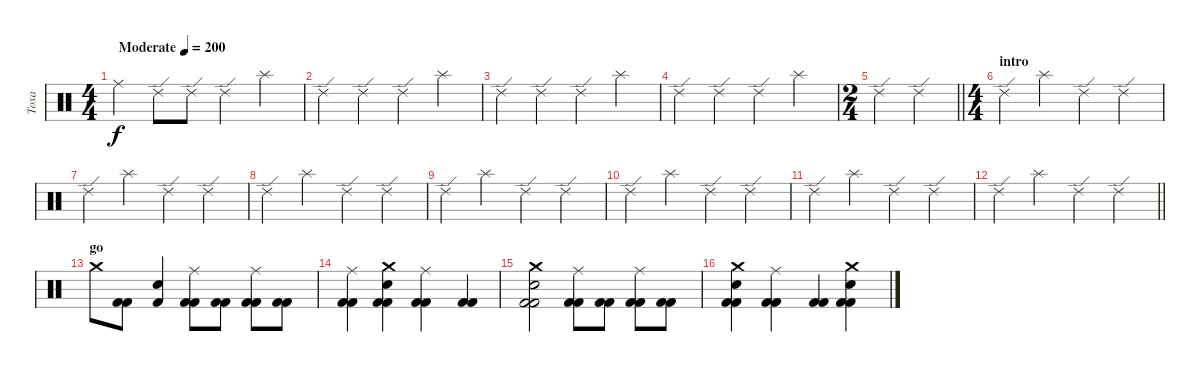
\track ("Toxa" "Toxa") {instrument percussion}
\staff {score}
\articulation defaults
\ts (4 4)
\tempo (200 "Moderate")
\clef neutral
\ks c "Ride (middle)".4{dy f} "Ride (edge) 2".8 "Ride (edge) 2".8 "Ride (edge) 2".4 "Splash (hit)".4
|
"Ride (edge) 2".4 "Ride (edge) 2".4 "Ride (edge) 2".4 "Splash (hit)".4 |
"Ride (edge) 2".4 "Ride (edge) 2".4 "Ride (edge) 2".4 "Splash (hit)".4 |
"Ride (edge) 2".4 "Ride (edge) 2".4 "Ride (edge) 2".4 "Splash (hit)".4 |
\ts (2 4)
\barLineRight lightlight "Ride (edge) 2".4 "Ride (edge) 2".4
|
\ts (4 4)
\section ("" "intro")
"Ride (edge) 2".4 "Splash (hit)".4 "Ride (edge) 2".4 "Ride (edge) 2".4 |
"Ride (edge) 2".4 "Splash (hit)".4 "Ride (edge) 2".4 "Ride (edge) 2".4 |
"Ride (edge) 2".4 "Splash (hit)".4 "Ride (edge) 2".4 "Ride (edge) 2".4 |
"Ride (edge) 2".4 "Splash (hit)".4 "Ride (edge) 2".4 "Ride (edge) 2".4 |
"Ride (edge) 2".4 "Splash (hit)".4 "Ride (edge) 2".4 "Ride (edge) 2".4 |
"Ride (edge) 2".4 "Splash (hit)".4 "Ride (edge) 2".4 "Ride (edge) 2".4 |
\barLineRight lightlight "Ride (edge) 2".4 "Splash (hit)".4 "Ride (edge) 2".4 "Ride (edge) 2".4
|
\section ("" "go")
"Crash medium (hit)".8 ("Kick (hit) 2" "Kick (hit) 2").8 ("Kick (hit) 2" "Electric Snare (hit)").4 ("Kick (hit) 2" "Ride (middle)" "Kick (hit) 2").8 ("Kick (hit) 2" "Kick (hit) 2").8 ("Kick (hit) 2" "Ride (middle)" "Kick (hit) 2").8 ("Kick (hit) 2" "Kick (hit) 2").8 |
("Kick (hit) 2" "Ride (middle)" "Kick (hit) 2").4 ("Kick (hit) 2" "Electric Snare (hit)" "Kick (hit) 2" "Crash medium (hit)").4 ("Kick (hit) 2" "Ride (middle)" "Kick (hit) 2").4 ("Kick (hit) 2" "Kick (hit) 2").4 |
("Crash medium (hit)" "Kick (hit) 2" "Electric Snare (hit)" "Kick (hit) 2").2 ("Kick (hit) 2" "Ride (middle)" "Kick (hit) 2").8 ("Kick (hit) 2" "Kick (hit) 2").8 ("Ride (middle)" "Kick (hit) 2" "Kick (hit) 2").8 ("Kick (hit) 2" "Kick (hit) 2").8 |
("Crash medium (hit)" "Kick (hit) 2" "Electric Snare (hit)" "Kick (hit) 2").4 ("Kick (hit) 2" "Ride (middle)" "Kick (hit) 2").4 ("Kick (hit) 2" "Kick (hit) 2").4 ("Crash medium (hit)" "Kick (hit) 2" "Electric Snare (hit)" "Kick (hit) 2").4
